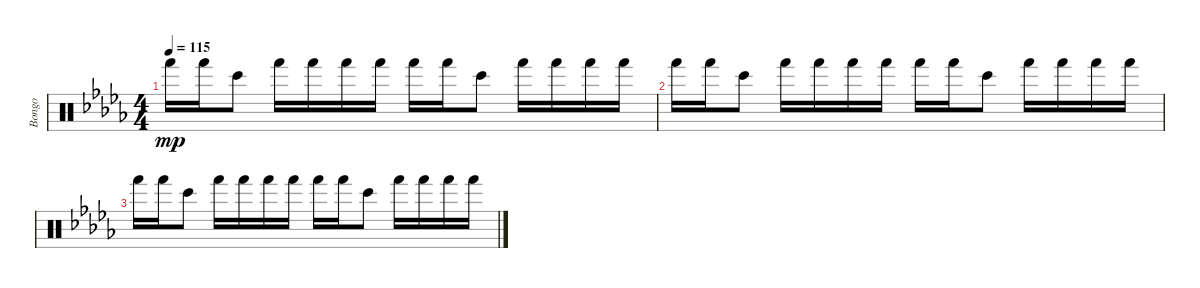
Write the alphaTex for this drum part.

\track ("Bongo" "Bongo") {instrument percussion}
\staff {score}
\articulation defaults
\ts (4 4)
\tempo 115
\clef neutral
\ks db "Hand (hit)".16{dy mp} "Hand (hit)".16 "Bongo High (hit)".8 "Hand (hit)".16 "Hand (hit)".16 "Hand (hit)".16 "Hand (hit)".16 "Hand (hit)".16 "Hand (hit)".16 "Bongo High (hit)".8 "Hand (hit)".16 "Hand (hit)".16 "Hand (hit)".16 "Hand (hit)".16
|
"Hand (hit)".16 "Hand (hit)".16 "Bongo High (hit)".8 "Hand (hit)".16 "Hand (hit)".16 "Hand (hit)".16 "Hand (hit)".16 "Hand (hit)".16 "Hand (hit)".16 "Bongo High (hit)".8 "Hand (hit)".16 "Hand (hit)".16 "Hand (hit)".16 "Hand (hit)".16 |
"Hand (hit)".16 "Hand (hit)".16 "Bongo High (hit)".8 "Hand (hit)".16 "Hand (hit)".16 "Hand (hit)".16 "Hand (hit)".16 "Hand (hit)".16 "Hand (hit)".16 "Bongo High (hit)".8 "Hand (hit)".16 "Hand (hit)".16 "Hand (hit)".16 "Hand (hit)".16
